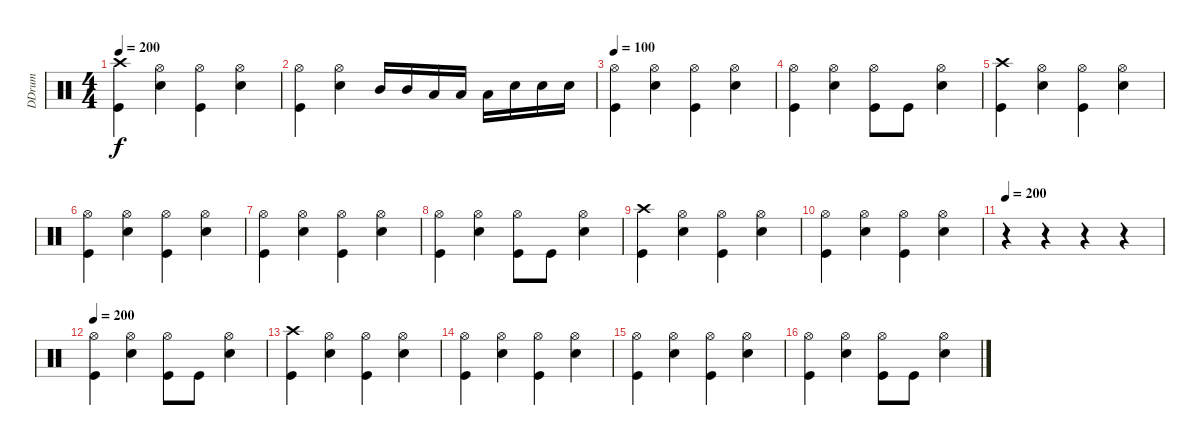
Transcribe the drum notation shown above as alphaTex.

\track ("DDrum" "DDrum") {instrument percussion}
\staff {score}
\articulation defaults
\ts (4 4)
\tempo 200
\clef neutral
\ks c
("Crash high (hit)" "Kick (hit)").4{dy f} ("Hi-Hat (open)" "Electric Snare (hit)").4 ("Hi-Hat (open)" "Kick (hit)").4 ("Hi-Hat (open)" "Electric Snare (hit)").4 |
("Hi-Hat (open)" "Kick (hit)").4 ("Hi-Hat (open)" "Electric Snare (hit)").4 "Mid Tom (hit)".16 "Mid Tom (hit)".16 "Low Tom (hit)".16 "Low Tom (hit)".16 "Low Tom (hit)".16 "Electric Snare (hit)".16 "Electric Snare (hit)".16 "Electric Snare (hit)".16 |
\tempo 100
("Hi-Hat (open)" "Kick (hit)").4 ("Hi-Hat (open)" "Electric Snare (hit)").4 ("Hi-Hat (open)" "Kick (hit)").4 ("Hi-Hat (open)" "Electric Snare (hit)").4 |
("Hi-Hat (open)" "Kick (hit)").4 ("Hi-Hat (open)" "Electric Snare (hit)").4 ("Hi-Hat (open)" "Kick (hit)").8 "Kick (hit)".8 ("Hi-Hat (open)" "Electric Snare (hit)").4 |
("Crash high (hit)" "Kick (hit)").4 ("Hi-Hat (open)" "Electric Snare (hit)").4 ("Hi-Hat (open)" "Kick (hit)").4 ("Hi-Hat (open)" "Electric Snare (hit)").4 |
("Hi-Hat (open)" "Kick (hit)").4 ("Hi-Hat (open)" "Electric Snare (hit)").4 ("Hi-Hat (open)" "Kick (hit)").4 ("Hi-Hat (open)" "Electric Snare (hit)").4 |
("Hi-Hat (open)" "Kick (hit)").4 ("Hi-Hat (open)" "Electric Snare (hit)").4 ("Hi-Hat (open)" "Kick (hit)").4 ("Hi-Hat (open)" "Electric Snare (hit)").4 |
("Hi-Hat (open)" "Kick (hit)").4 ("Hi-Hat (open)" "Electric Snare (hit)").4 ("Hi-Hat (open)" "Kick (hit)").8 "Kick (hit)".8 ("Hi-Hat (open)" "Electric Snare (hit)").4 |
("Crash high (hit)" "Kick (hit)").4 ("Hi-Hat (open)" "Electric Snare (hit)").4 ("Hi-Hat (open)" "Kick (hit)").4 ("Hi-Hat (open)" "Electric Snare (hit)").4 |
("Hi-Hat (open)" "Kick (hit)").4 ("Hi-Hat (open)" "Electric Snare (hit)").4 ("Hi-Hat (open)" "Kick (hit)").4 ("Hi-Hat (open)" "Electric Snare (hit)").4 |
\tempo 200
r.4 r.4 r.4 r.4 |
\tempo 200
("Hi-Hat (open)" "Kick (hit)").4 ("Hi-Hat (open)" "Electric Snare (hit)").4 ("Hi-Hat (open)" "Kick (hit)").8 "Kick (hit)".8 ("Hi-Hat (open)" "Electric Snare (hit)").4 |
("Crash high (hit)" "Kick (hit)").4 ("Hi-Hat (open)" "Electric Snare (hit)").4 ("Hi-Hat (open)" "Kick (hit)").4 ("Hi-Hat (open)" "Electric Snare (hit)").4 |
("Hi-Hat (open)" "Kick (hit)").4 ("Hi-Hat (open)" "Electric Snare (hit)").4 ("Hi-Hat (open)" "Kick (hit)").4 ("Hi-Hat (open)" "Electric Snare (hit)").4 |
("Hi-Hat (open)" "Kick (hit)").4 ("Hi-Hat (open)" "Electric Snare (hit)").4 ("Hi-Hat (open)" "Kick (hit)").4 ("Hi-Hat (open)" "Electric Snare (hit)").4 |
("Hi-Hat (open)" "Kick (hit)").4 ("Hi-Hat (open)" "Electric Snare (hit)").4 ("Hi-Hat (open)" "Kick (hit)").8 "Kick (hit)".8 ("Hi-Hat (open)" "Electric Snare (hit)").4
